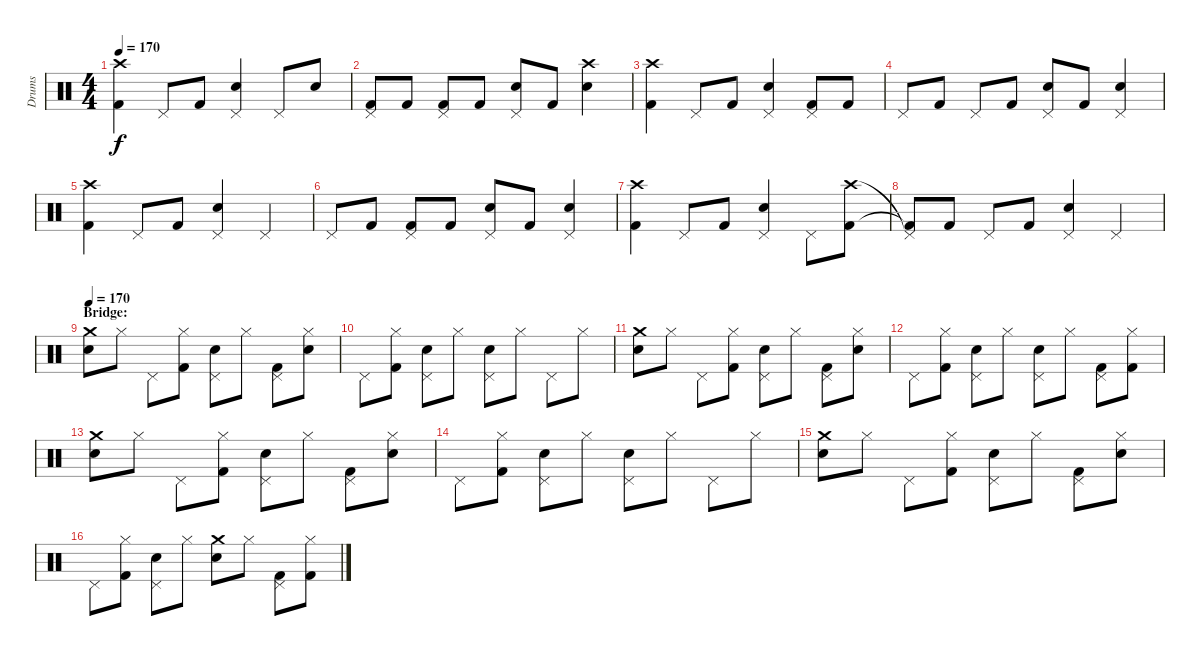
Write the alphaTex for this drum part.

\track ("Drums" "Drums") {instrument percussion}
\staff {score}
\articulation defaults
\ts (4 4)
\tempo 170
\clef neutral
\ks c
("Crash high (hit)" "Kick (hit) 2").4{dy f} "Pedal Hi-Hat (hit)".8 "Kick (hit) 2".8 ("Pedal Hi-Hat (hit)" "Snare (hit) 2").4 "Pedal Hi-Hat (hit)".8 "Snare (hit) 2".8 |
("Pedal Hi-Hat (hit)" "Kick (hit) 2").8 "Kick (hit) 2".8 ("Pedal Hi-Hat (hit)" "Kick (hit) 2").8 "Kick (hit) 2".8 ("Pedal Hi-Hat (hit)" "Snare (hit) 2").8 "Kick (hit) 2".8 ("Crash high (hit)" "Snare (hit) 2").4 |
("Crash high (hit)" "Kick (hit) 2").4 "Pedal Hi-Hat (hit)".8 "Kick (hit) 2".8 ("Pedal Hi-Hat (hit)" "Snare (hit) 2").4 ("Pedal Hi-Hat (hit)" "Kick (hit) 2").8 "Kick (hit) 2".8 |
"Pedal Hi-Hat (hit)".8 "Kick (hit) 2".8 "Pedal Hi-Hat (hit)".8 "Kick (hit) 2".8 ("Pedal Hi-Hat (hit)" "Snare (hit) 2").8 "Kick (hit) 2".8 ("Pedal Hi-Hat (hit)" "Snare (hit) 2").4 |
("Crash high (hit)" "Kick (hit) 2").4 "Pedal Hi-Hat (hit)".8 "Kick (hit) 2".8 ("Pedal Hi-Hat (hit)" "Snare (hit) 2").4 "Pedal Hi-Hat (hit)".4 |
"Pedal Hi-Hat (hit)".8 "Kick (hit) 2".8 ("Pedal Hi-Hat (hit)" "Kick (hit) 2").8 "Kick (hit) 2".8 ("Pedal Hi-Hat (hit)" "Snare (hit) 2").8 "Kick (hit) 2".8 ("Pedal Hi-Hat (hit)" "Snare (hit) 2").4 |
("Crash high (hit)" "Kick (hit) 2").4 "Pedal Hi-Hat (hit)".8 "Kick (hit) 2".8 ("Pedal Hi-Hat (hit)" "Snare (hit) 2").4 "Pedal Hi-Hat (hit)".8 ("Crash high (hit)" "Kick (hit) 2").8 |
("Pedal Hi-Hat (hit)"{t} "Kick (hit) 2"{t}).8 "Kick (hit) 2".8 "Pedal Hi-Hat (hit)".8 "Kick (hit) 2".8 ("Pedal Hi-Hat (hit)" "Snare (hit) 2").4 "Pedal Hi-Hat (hit)".4 |
\section ("" "Bridge:")
\tempo 170
("Crash medium (hit)" "Electric Snare (hit)").8 "Hi-Hat (closed)".8 "Pedal Hi-Hat (hit)".8 ("Hi-Hat (closed)" "Kick (hit) 2").8 ("Pedal Hi-Hat (hit)" "Electric Snare (hit)").8 "Hi-Hat (closed)".8 ("Pedal Hi-Hat (hit)" "Kick (hit) 2").8 ("Hi-Hat (closed)" "Electric Snare (hit)").8 |
"Pedal Hi-Hat (hit)".8 ("Hi-Hat (closed)" "Kick (hit) 2").8 ("Pedal Hi-Hat (hit)" "Electric Snare (hit)").8 "Hi-Hat (closed)".8 ("Pedal Hi-Hat (hit)" "Electric Snare (hit)").8 "Hi-Hat (closed)".8 "Pedal Hi-Hat (hit)".8 "Hi-Hat (closed)".8 |
("Crash medium (hit)" "Electric Snare (hit)").8 "Hi-Hat (closed)".8 "Pedal Hi-Hat (hit)".8 ("Hi-Hat (closed)" "Kick (hit) 2").8 ("Pedal Hi-Hat (hit)" "Electric Snare (hit)").8 "Hi-Hat (closed)".8 ("Pedal Hi-Hat (hit)" "Kick (hit) 2").8 ("Hi-Hat (closed)" "Electric Snare (hit)").8 |
"Pedal Hi-Hat (hit)".8 ("Hi-Hat (closed)" "Kick (hit) 2").8 ("Pedal Hi-Hat (hit)" "Electric Snare (hit)").8 "Hi-Hat (closed)".8 ("Pedal Hi-Hat (hit)" "Electric Snare (hit)").8 "Hi-Hat (closed)".8 ("Pedal Hi-Hat (hit)" "Kick (hit) 2").8 ("Hi-Hat (closed)" "Kick (hit) 2").8 |
("Crash medium (hit)" "Electric Snare (hit)").8 "Hi-Hat (closed)".8 "Pedal Hi-Hat (hit)".8 ("Hi-Hat (closed)" "Kick (hit) 2").8 ("Pedal Hi-Hat (hit)" "Electric Snare (hit)").8 "Hi-Hat (closed)".8 ("Pedal Hi-Hat (hit)" "Kick (hit) 2").8 ("Hi-Hat (closed)" "Electric Snare (hit)").8 |
"Pedal Hi-Hat (hit)".8 ("Hi-Hat (closed)" "Kick (hit) 2").8 ("Pedal Hi-Hat (hit)" "Electric Snare (hit)").8 "Hi-Hat (closed)".8 ("Pedal Hi-Hat (hit)" "Electric Snare (hit)").8 "Hi-Hat (closed)".8 "Pedal Hi-Hat (hit)".8 "Hi-Hat (closed)".8 |
("Crash medium (hit)" "Electric Snare (hit)").8 "Hi-Hat (closed)".8 "Pedal Hi-Hat (hit)".8 ("Hi-Hat (closed)" "Kick (hit) 2").8 ("Pedal Hi-Hat (hit)" "Electric Snare (hit)").8 "Hi-Hat (closed)".8 ("Pedal Hi-Hat (hit)" "Kick (hit) 2").8 ("Hi-Hat (closed)" "Electric Snare (hit)").8 |
"Pedal Hi-Hat (hit)".8 ("Hi-Hat (closed)" "Kick (hit) 2").8 ("Pedal Hi-Hat (hit)" "Electric Snare (hit)").8 "Hi-Hat (closed)".8 ("Crash medium (hit)" "Electric Snare (hit)").8 "Hi-Hat (closed)".8 ("Pedal Hi-Hat (hit)" "Kick (hit) 2").8 ("Hi-Hat (closed)" "Kick (hit) 2").8
